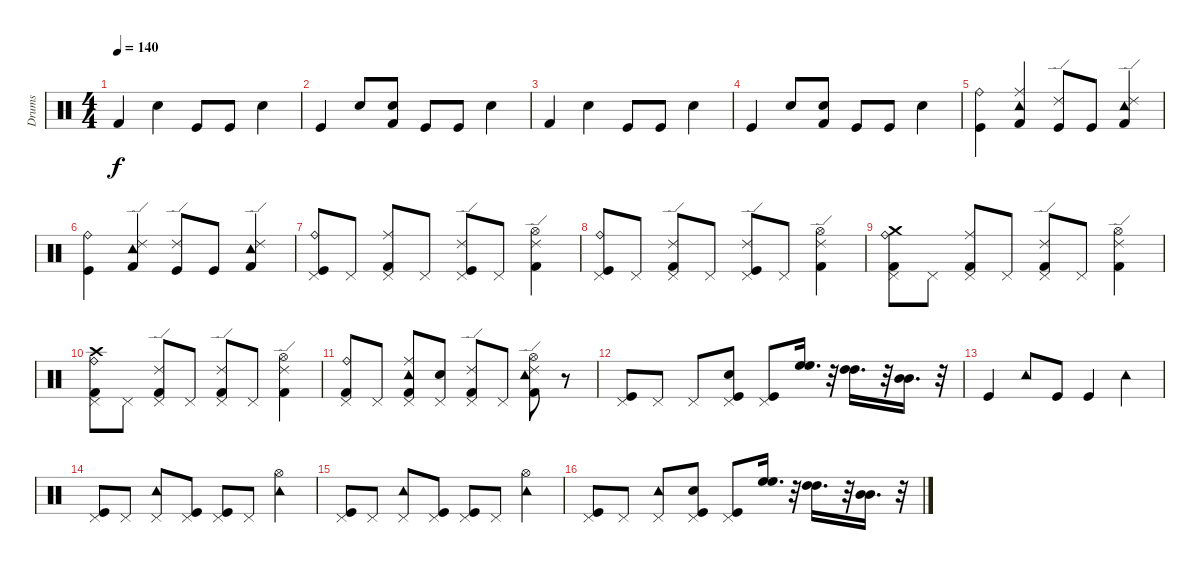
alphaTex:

\track ("Drums" "Drums") {instrument percussion}
\staff {score}
\articulation defaults
\ts (4 4)
\tempo 140
\clef neutral
\ks c "Kick (hit) 2".4{dy f} "Electric Snare (hit)".4 "Kick (hit)".8 "Kick (hit)".8 "Electric Snare (hit)".4
|
"Kick (hit)".4 "Electric Snare (hit)".8 ("Electric Snare (hit)" "Kick (hit) 2").8 "Kick (hit)".8 "Kick (hit)".8 "Electric Snare (hit)".4 |
"Kick (hit) 2".4 "Electric Snare (hit)".4 "Kick (hit)".8 "Kick (hit)".8 "Electric Snare (hit)".4 |
"Kick (hit)".4 "Electric Snare (hit)".8 ("Electric Snare (hit)" "Kick (hit) 2").8 "Kick (hit)".8 "Kick (hit)".8 "Electric Snare (hit)".4 |
("Ride (bell)" "Kick (hit)").4 ("Ride (middle)" "Tambourine (hit)" "Kick (hit) 2").4 ("Ride (edge) 2" "Kick (hit)").8 "Kick (hit)".8 ("Ride (edge) 2" "Tambourine (hit)" "Kick (hit) 2").4 |
("Ride (bell)" "Kick (hit)").4 ("Ride (edge) 2" "Tambourine (hit)" "Kick (hit) 2").4 ("Ride (edge) 2" "Kick (hit)").8 "Kick (hit)".8 ("Ride (edge) 2" "Tambourine (hit)" "Kick (hit) 2").4 |
("Ride (bell)" "Pedal Hi-Hat (hit)" "Kick (hit)").8 "Pedal Hi-Hat (hit)".8 ("Ride (middle)" "Pedal Hi-Hat (hit)" "Kick (hit) 2").8 "Pedal Hi-Hat (hit)".8 ("Ride (edge) 2" "Pedal Hi-Hat (hit)" "Kick (hit)").8 "Pedal Hi-Hat (hit)".8 ("Ride (edge) 2" "Hi-Hat (open)" "Kick (hit) 2").4 |
("Ride (bell)" "Pedal Hi-Hat (hit)" "Kick (hit)").8 "Pedal Hi-Hat (hit)".8 ("Ride (edge) 2" "Pedal Hi-Hat (hit)" "Kick (hit) 2").8 "Pedal Hi-Hat (hit)".8 ("Ride (edge) 2" "Pedal Hi-Hat (hit)" "Kick (hit)").8 "Pedal Hi-Hat (hit)".8 ("Ride (edge) 2" "Hi-Hat (open)" "Kick (hit) 2").4 |
("Crash medium (hit)" "Ride (bell)" "Pedal Hi-Hat (hit)" "Kick (hit) 2").8 "Pedal Hi-Hat (hit)".8 ("Ride (middle)" "Pedal Hi-Hat (hit)" "Kick (hit) 2").8 "Pedal Hi-Hat (hit)".8 ("Ride (edge) 2" "Pedal Hi-Hat (hit)" "Kick (hit) 2").8 "Pedal Hi-Hat (hit)".8 ("Ride (edge) 2" "Hi-Hat (open)" "Kick (hit) 2").4 |
("Crash high (hit)" "Ride (bell)" "Pedal Hi-Hat (hit)" "Kick (hit) 2").8 "Pedal Hi-Hat (hit)".8 ("Ride (edge) 2" "Pedal Hi-Hat (hit)" "Kick (hit) 2").8 "Pedal Hi-Hat (hit)".8 ("Ride (edge) 2" "Pedal Hi-Hat (hit)" "Kick (hit) 2").8 "Pedal Hi-Hat (hit)".8 ("Ride (edge) 2" "Hi-Hat (open)" "Kick (hit) 2").4 |
("Ride (bell)" "Pedal Hi-Hat (hit)" "Kick (hit) 2").8 "Pedal Hi-Hat (hit)".8 ("Ride (middle)" "Pedal Hi-Hat (hit)" "Tambourine (hit)" "Kick (hit) 2").8 ("Pedal Hi-Hat (hit)" "Electric Snare (hit)").8 ("Ride (edge) 2" "Pedal Hi-Hat (hit)" "Kick (hit) 2").8 "Pedal Hi-Hat (hit)".8 ("Ride (edge) 2" "Hi-Hat (open)" "Tambourine (hit)" "Kick (hit) 2").8 r.8 |
("Pedal Hi-Hat (hit)" "Kick (hit)").8 "Pedal Hi-Hat (hit)".8 "Pedal Hi-Hat (hit)".8 ("Pedal Hi-Hat (hit)" "Electric Snare (hit)" "Kick (hit)").8 ("Pedal Hi-Hat (hit)" "Kick (hit)").8 ("High Floor Tom (hit)" "High Floor Tom (hit)").16{d} r.32 ("High Tom (hit)" "High Tom (hit)").16{d} r.32 ("Mid Tom (hit)" "Mid Tom (hit)").16{d} r.32 |
"Kick (hit)".4 "Tambourine (hit)".8 "Kick (hit)".8 "Kick (hit)".4 "Tambourine (hit)".4 |
("Pedal Hi-Hat (hit)" "Kick (hit)").8 "Pedal Hi-Hat (hit)".8 ("Pedal Hi-Hat (hit)" "Tambourine (hit)").8 ("Pedal Hi-Hat (hit)" "Kick (hit)").8 ("Pedal Hi-Hat (hit)" "Kick (hit)").8 "Pedal Hi-Hat (hit)".8 ("Hi-Hat (open)" "Tambourine (hit)").4 |
("Pedal Hi-Hat (hit)" "Kick (hit)").8 "Pedal Hi-Hat (hit)".8 ("Pedal Hi-Hat (hit)" "Tambourine (hit)").8 ("Pedal Hi-Hat (hit)" "Kick (hit)").8 ("Pedal Hi-Hat (hit)" "Kick (hit)").8 "Pedal Hi-Hat (hit)".8 ("Hi-Hat (open)" "Tambourine (hit)").4 |
("Pedal Hi-Hat (hit)" "Kick (hit)").8 "Pedal Hi-Hat (hit)".8 ("Pedal Hi-Hat (hit)" "Tambourine (hit)").8 ("Pedal Hi-Hat (hit)" "Electric Snare (hit)" "Kick (hit)").8 ("Pedal Hi-Hat (hit)" "Kick (hit)").8 ("High Floor Tom (hit)" "High Floor Tom (hit)").16{d} r.32 ("High Tom (hit)" "High Tom (hit)").16{d} r.32 ("Mid Tom (hit)" "Mid Tom (hit)").16{d} r.32
